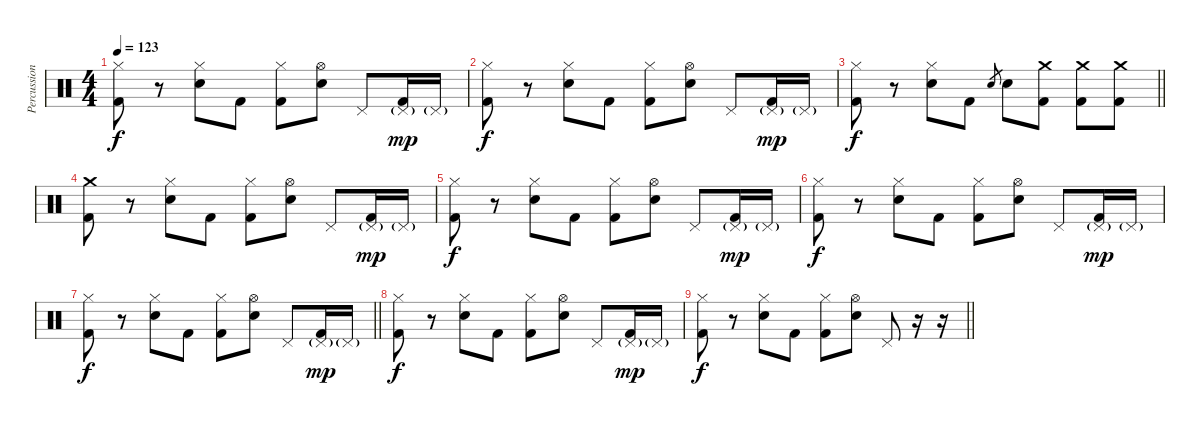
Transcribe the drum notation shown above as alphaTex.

\track ("Percussion" "Percussion") {instrument percussion}
\staff {score}
\articulation defaults
\ts (4 4)
\tempo 123
\clef neutral
\ks c
("Hi-Hat (closed)" "Kick (hit) 2").8{dy f} r.8 ("Hi-Hat (closed)" "Electric Snare (hit)").8 "Kick (hit) 2".8 ("Hi-Hat (closed)" "Kick (hit) 2").8 ("Hi-Hat (open)" "Electric Snare (hit)").8 "Pedal Hi-Hat (hit)".8 ("Pedal Hi-Hat (hit)"{g} "Kick (hit) 2").16{dy mp} "Pedal Hi-Hat (hit)"{g}.16 |
("Hi-Hat (closed)" "Kick (hit) 2").8{dy f} r.8 ("Hi-Hat (closed)" "Electric Snare (hit)").8 "Kick (hit) 2".8 ("Hi-Hat (closed)" "Kick (hit) 2").8 ("Hi-Hat (open)" "Electric Snare (hit)").8 "Pedal Hi-Hat (hit)".8 ("Pedal Hi-Hat (hit)"{g} "Kick (hit) 2").16{dy mp} "Pedal Hi-Hat (hit)"{g}.16 |
\barLineRight lightlight
("Hi-Hat (closed)" "Kick (hit) 2").8{dy f} r.8 ("Hi-Hat (closed)" "Electric Snare (hit)").8 "Kick (hit) 2".8 "Electric Snare (hit)".8{gr} "Electric Snare (hit)".8 ("Crash medium (hit)" "Kick (hit) 2").8 ("Crash medium (hit)" "Kick (hit) 2").8 ("Crash medium (hit)" "Kick (hit) 2").8 |
("Crash medium (hit)" "Kick (hit) 2").8 r.8 ("Hi-Hat (closed)" "Electric Snare (hit)").8 "Kick (hit) 2".8 ("Hi-Hat (closed)" "Kick (hit) 2").8 ("Hi-Hat (open)" "Electric Snare (hit)").8 "Pedal Hi-Hat (hit)".8 ("Pedal Hi-Hat (hit)"{g} "Kick (hit) 2").16{dy mp} "Pedal Hi-Hat (hit)"{g}.16 |
("Hi-Hat (closed)" "Kick (hit) 2").8{dy f} r.8 ("Hi-Hat (closed)" "Electric Snare (hit)").8 "Kick (hit) 2".8 ("Hi-Hat (closed)" "Kick (hit) 2").8 ("Hi-Hat (open)" "Electric Snare (hit)").8 "Pedal Hi-Hat (hit)".8 ("Pedal Hi-Hat (hit)"{g} "Kick (hit) 2").16{dy mp} "Pedal Hi-Hat (hit)"{g}.16 |
("Hi-Hat (closed)" "Kick (hit) 2").8{dy f} r.8 ("Hi-Hat (closed)" "Electric Snare (hit)").8 "Kick (hit) 2".8 ("Hi-Hat (closed)" "Kick (hit) 2").8 ("Hi-Hat (open)" "Electric Snare (hit)").8 "Pedal Hi-Hat (hit)".8 ("Pedal Hi-Hat (hit)"{g} "Kick (hit) 2").16{dy mp} "Pedal Hi-Hat (hit)"{g}.16 |
\barLineRight lightlight
("Hi-Hat (closed)" "Kick (hit) 2").8{dy f} r.8 ("Hi-Hat (closed)" "Electric Snare (hit)").8 "Kick (hit) 2".8 ("Hi-Hat (closed)" "Kick (hit) 2").8 ("Hi-Hat (open)" "Electric Snare (hit)").8 "Pedal Hi-Hat (hit)".8 ("Pedal Hi-Hat (hit)"{g} "Kick (hit) 2").16{dy mp} "Pedal Hi-Hat (hit)"{g}.16 |
("Hi-Hat (closed)" "Kick (hit) 2").8{dy f} r.8 ("Hi-Hat (closed)" "Electric Snare (hit)").8 "Kick (hit) 2".8 ("Hi-Hat (closed)" "Kick (hit) 2").8 ("Hi-Hat (open)" "Electric Snare (hit)").8 "Pedal Hi-Hat (hit)".8 ("Pedal Hi-Hat (hit)"{g} "Kick (hit) 2").16{dy mp} "Pedal Hi-Hat (hit)"{g}.16 |
\barLineRight lightlight
("Hi-Hat (closed)" "Kick (hit) 2").8{dy f} r.8 ("Hi-Hat (closed)" "Electric Snare (hit)").8 "Kick (hit) 2".8 ("Hi-Hat (closed)" "Kick (hit) 2").8 ("Hi-Hat (open)" "Electric Snare (hit)").8 "Pedal Hi-Hat (hit)".8 r.16 r.16
